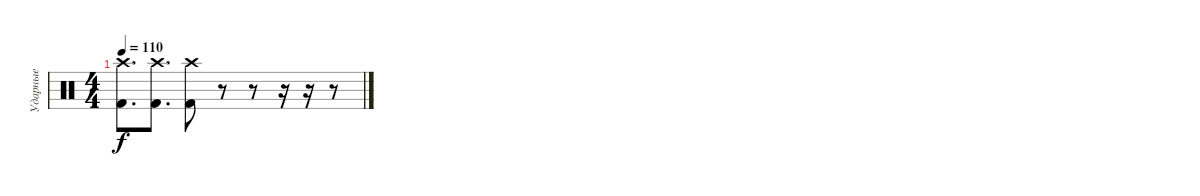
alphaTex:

\track ("Ударные" "Ударные") {instrument percussion}
\staff {score}
\articulation defaults
\ts (4 4)
\tempo 110
\clef neutral
\ks c
("Crash high (hit)" "Kick (hit) 2").8{d dy f} ("Crash high (hit)" "Kick (hit) 2").8{d} ("Crash high (hit)" "Kick (hit) 2").8 r.8 r.8 r.16 r.16 r.8
